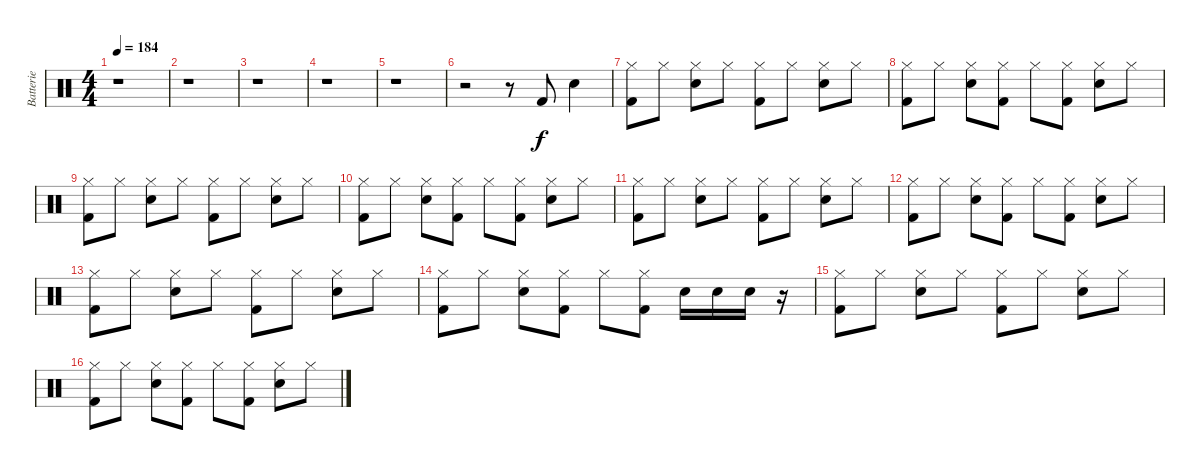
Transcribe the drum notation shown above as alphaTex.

\track ("Batterie" "Batterie") {instrument percussion}
\staff {score}
\articulation defaults
\ts (4 4)
\tempo 184
\clef neutral
\ks c
r.1{dy f} |
r.1 |
r.1 |
r.1 |
r.1 |
r.2 r.8 "Kick (hit) 2".8 "Snare (hit) 2".4 |
("Hi-Hat (closed)" "Kick (hit) 2").8 "Hi-Hat (closed)".8 ("Hi-Hat (closed)" "Snare (hit) 2").8 "Hi-Hat (closed)".8 ("Hi-Hat (closed)" "Kick (hit) 2").8 "Hi-Hat (closed)".8 ("Hi-Hat (closed)" "Snare (hit) 2").8 "Hi-Hat (closed)".8 |
("Hi-Hat (closed)" "Kick (hit) 2").8 "Hi-Hat (closed)".8 ("Hi-Hat (closed)" "Snare (hit) 2").8 ("Hi-Hat (closed)" "Kick (hit) 2").8 "Hi-Hat (closed)".8 ("Hi-Hat (closed)" "Kick (hit) 2").8 ("Hi-Hat (closed)" "Snare (hit) 2").8 "Hi-Hat (closed)".8 |
("Hi-Hat (closed)" "Kick (hit) 2").8 "Hi-Hat (closed)".8 ("Hi-Hat (closed)" "Snare (hit) 2").8 "Hi-Hat (closed)".8 ("Hi-Hat (closed)" "Kick (hit) 2").8 "Hi-Hat (closed)".8 ("Hi-Hat (closed)" "Snare (hit) 2").8 "Hi-Hat (closed)".8 |
("Hi-Hat (closed)" "Kick (hit) 2").8 "Hi-Hat (closed)".8 ("Hi-Hat (closed)" "Snare (hit) 2").8 ("Hi-Hat (closed)" "Kick (hit) 2").8 "Hi-Hat (closed)".8 ("Hi-Hat (closed)" "Kick (hit) 2").8 ("Hi-Hat (closed)" "Snare (hit) 2").8 "Hi-Hat (closed)".8 |
("Hi-Hat (closed)" "Kick (hit) 2").8 "Hi-Hat (closed)".8 ("Hi-Hat (closed)" "Snare (hit) 2").8 "Hi-Hat (closed)".8 ("Hi-Hat (closed)" "Kick (hit) 2").8 "Hi-Hat (closed)".8 ("Hi-Hat (closed)" "Snare (hit) 2").8 "Hi-Hat (closed)".8 |
("Hi-Hat (closed)" "Kick (hit) 2").8 "Hi-Hat (closed)".8 ("Hi-Hat (closed)" "Snare (hit) 2").8 ("Hi-Hat (closed)" "Kick (hit) 2").8 "Hi-Hat (closed)".8 ("Hi-Hat (closed)" "Kick (hit) 2").8 ("Hi-Hat (closed)" "Snare (hit) 2").8 "Hi-Hat (closed)".8 |
("Hi-Hat (closed)" "Kick (hit) 2").8 "Hi-Hat (closed)".8 ("Hi-Hat (closed)" "Snare (hit) 2").8 "Hi-Hat (closed)".8 ("Hi-Hat (closed)" "Kick (hit) 2").8 "Hi-Hat (closed)".8 ("Hi-Hat (closed)" "Snare (hit) 2").8 "Hi-Hat (closed)".8 |
("Hi-Hat (closed)" "Kick (hit) 2").8 "Hi-Hat (closed)".8 ("Hi-Hat (closed)" "Snare (hit) 2").8 ("Hi-Hat (closed)" "Kick (hit) 2").8 "Hi-Hat (closed)".8 ("Hi-Hat (closed)" "Kick (hit) 2").8 "Snare (hit) 2".16 "Snare (hit) 2".16 "Snare (hit) 2".16 r.16 |
("Hi-Hat (closed)" "Kick (hit) 2").8 "Hi-Hat (closed)".8 ("Hi-Hat (closed)" "Snare (hit) 2").8 "Hi-Hat (closed)".8 ("Hi-Hat (closed)" "Kick (hit) 2").8 "Hi-Hat (closed)".8 ("Hi-Hat (closed)" "Snare (hit) 2").8 "Hi-Hat (closed)".8 |
("Hi-Hat (closed)" "Kick (hit) 2").8 "Hi-Hat (closed)".8 ("Hi-Hat (closed)" "Snare (hit) 2").8 ("Hi-Hat (closed)" "Kick (hit) 2").8 "Hi-Hat (closed)".8 ("Hi-Hat (closed)" "Kick (hit) 2").8 ("Hi-Hat (closed)" "Snare (hit) 2").8 "Hi-Hat (closed)".8
